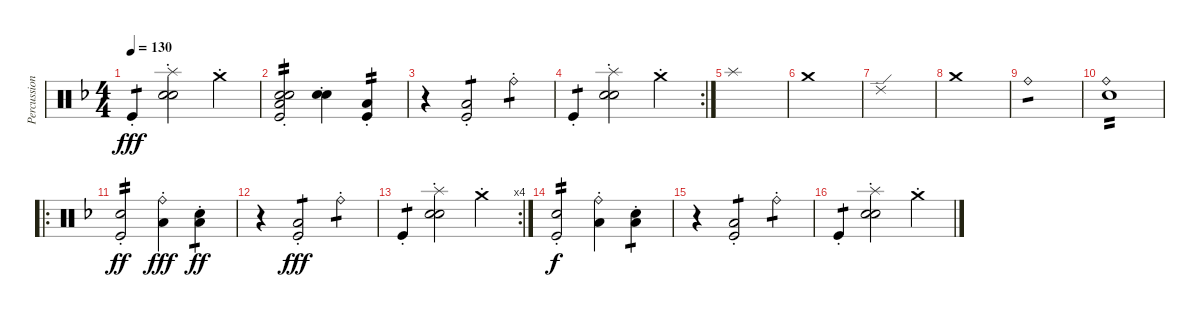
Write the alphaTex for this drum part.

\track ("Percussion" "Percussion") {instrument percussion}
\staff {score}
\articulation defaults
\ts (4 4)
\tempo 130
\clef neutral
\ks dminor "Kick (hit)"{st}.4{tp 1 dy fff}
("Splash (hit)"{st} "Snare (hit) 2"{st} "Electric Snare (hit)"{st}).2 "Crash medium (hit)"{st}.4 |
("Snare (hit) 2"{st} "Electric Snare (hit)"{st} "Low Floor Tom (hit)"{st} "Kick (hit)"{st}).2{tp 2} ("Electric Snare (hit)"{st} "Snare (hit) 2"{st}).4 ("Low Floor Tom (hit)"{st} "Kick (hit)"{st}).4{tp 2} |
r.4 ("Low Tom (hit)"{st} "Kick (hit)"{st}).2{tp 1} "Ride (bell)"{st}.4{tp 1} |
\rc 2 "Kick (hit)"{st}.4{tp 1}
("Splash (hit)"{st} "Snare (hit) 2"{st} "Electric Snare (hit)"{st}).2 "Crash medium (hit)"{st}.4 |
"Splash (hit)".1 |
"Crash medium (hit)".1 |
"Ride (edge) 2".1 |
"Crash medium (hit)".1 |
"Ride (bell)".1{tp 1} |
("Ride (bell)" "Snare (hit) 2").1{tp 2} |
\ro
("Snare (hit) 2"{st} "Kick (hit)"{st}).2{tp 2 dy ff} ("Ride (bell)"{st} "Low Floor Tom (hit)"{st}).4{dy fff} ("Low Tom (hit)"{st} "Snare (hit) 2"{st}).4{tp 1 dy ff} |
r.4 ("Low Tom (hit)"{st} "Kick (hit)"{st}).2{tp 1 dy fff} "Ride (bell)"{st}.4{tp 1} |
\rc 4 "Kick (hit)"{st}.4{tp 1}
("Splash (hit)"{st} "Snare (hit) 2"{st} "Electric Snare (hit)"{st}).2 "Crash medium (hit)"{st}.4 |
("Snare (hit) 2"{st} "Kick (hit)"{st}).2{tp 2 dy f} ("Ride (bell)"{st} "Low Floor Tom (hit)"{st}).4 ("Low Tom (hit)"{st} "Snare (hit) 2"{st}).4{tp 1} |
r.4 ("Low Tom (hit)"{st} "Kick (hit)"{st}).2{tp 1} "Ride (bell)"{st}.4{tp 1} |
"Kick (hit)"{st}.4{tp 1} ("Splash (hit)"{st} "Snare (hit) 2"{st} "Electric Snare (hit)"{st}).2 "Crash medium (hit)"{st}.4
